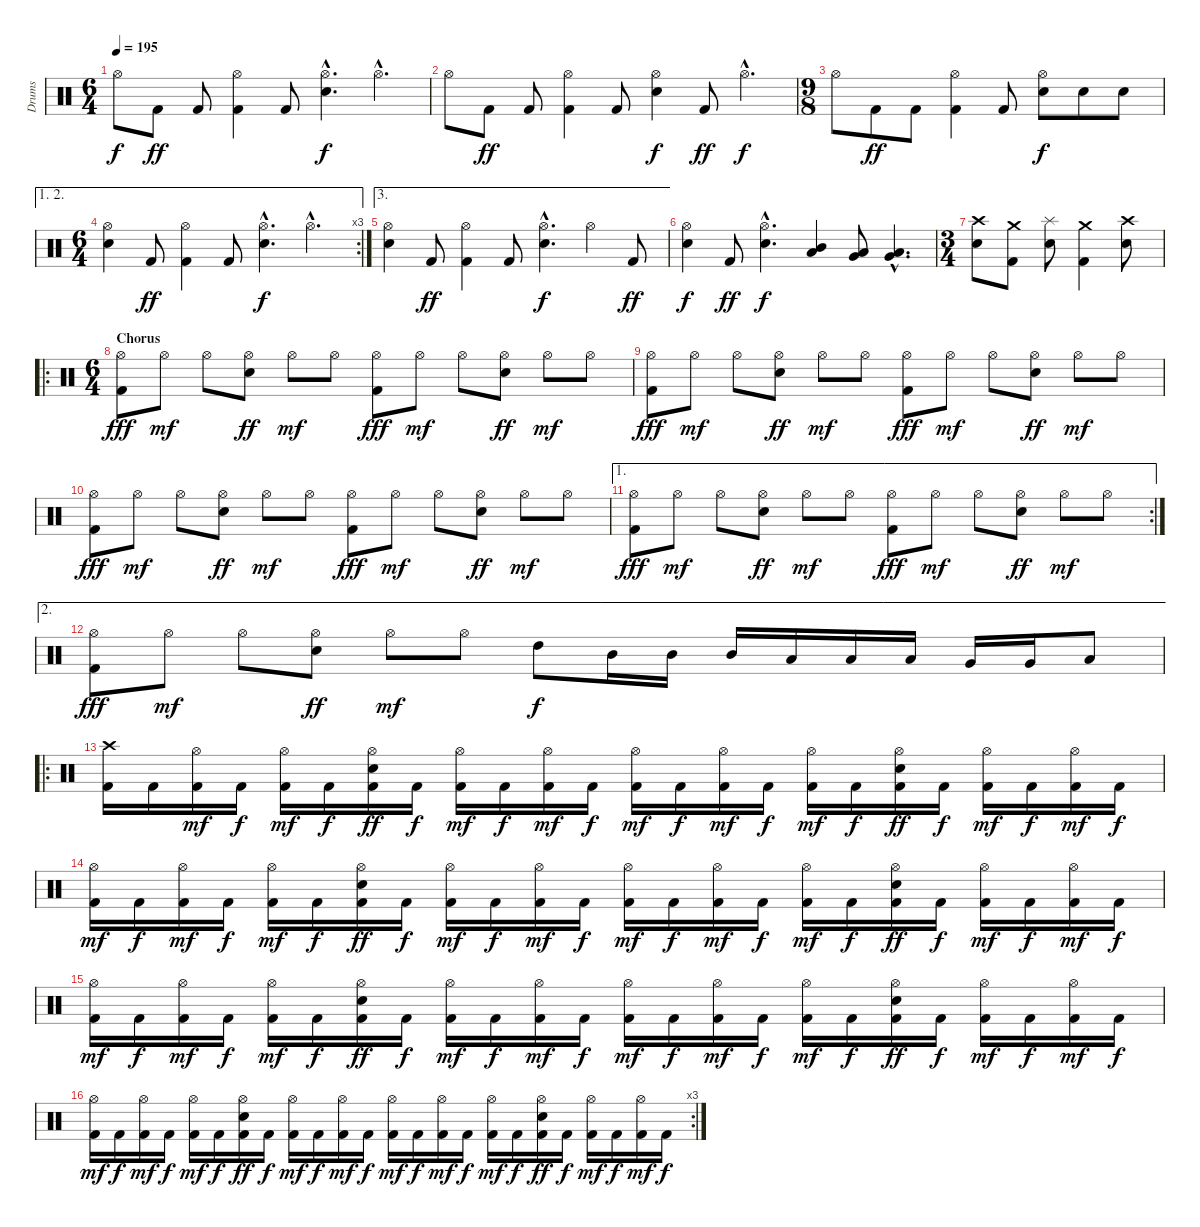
\track ("Drums" "Drums") {instrument percussion}
\staff {score}
\articulation defaults
\ts (6 4)
\tempo 195
\clef neutral
\ks c "Hi-Hat (open)".8{dy f} "Kick (hit) 2".8{dy ff} "Kick (hit) 2".8
("Hi-Hat (open)" "Kick (hit) 2").4 "Kick (hit) 2".8 ("Hi-Hat (open)"{hac} "Electric Snare (hit)"{hac}).4{d dy f} "Hi-Hat (open)"{hac}.4{d} |
"Hi-Hat (open)".8 "Kick (hit) 2".8{dy ff} "Kick (hit) 2".8 ("Hi-Hat (open)" "Kick (hit) 2").4 "Kick (hit) 2".8 ("Hi-Hat (open)" "Electric Snare (hit)").4{dy f} "Kick (hit) 2".8{dy ff} "Hi-Hat (open)"{hac}.4{d dy f} |
\ts (9 8)
"Hi-Hat (open)".8 "Kick (hit) 2".8{dy ff} "Kick (hit) 2".8 ("Hi-Hat (open)" "Kick (hit) 2").4 "Kick (hit) 2".8 ("Hi-Hat (open)" "Electric Snare (hit)").8{dy f} "Electric Snare (hit)".8 "Electric Snare (hit)".8 |
\ae (1 2)
\rc 3
\ts (6 4)
("Hi-Hat (open)" "Electric Snare (hit)").4 "Kick (hit) 2".8{dy ff} ("Hi-Hat (open)" "Kick (hit) 2").4 "Kick (hit) 2".8 ("Hi-Hat (open)"{hac} "Electric Snare (hit)"{hac}).4{d dy f} "Hi-Hat (open)"{hac}.4{d} |
\ae 3
("Hi-Hat (open)" "Electric Snare (hit)").4 "Kick (hit) 2".8{dy ff} ("Hi-Hat (open)" "Kick (hit) 2").4 "Kick (hit) 2".8 ("Hi-Hat (open)"{hac} "Electric Snare (hit)"{hac}).4{d dy f} "Hi-Hat (open)".4 "Kick (hit) 2".8{dy ff} |
("Hi-Hat (open)" "Electric Snare (hit)").4{dy f} "Kick (hit) 2".8{dy ff} ("Hi-Hat (open)"{hac} "Electric Snare (hit)"{hac}).4{d dy f} ("Mid Tom (hit)" "Low Tom (hit)").4 ("Low Tom (hit)" "Very Low Tom (hit)").8 ("Very Low Tom (hit)"{hac} "Low Floor Tom (hit)"{hac}).4{d} |
\ts (3 4)
("Crash high (hit)" "Electric Snare (hit)").8 ("Crash medium (hit)" "Kick (hit) 2").8 ("Splash (hit)" "Electric Snare (hit)").8 ("Crash medium (hit)" "Kick (hit) 2").4 ("Crash high (hit)" "Electric Snare (hit)").8 |
\ro
\ts (6 4)
\section ("" "Chorus")
("Hi-Hat (open)" "Kick (hit) 2").8{dy fff} "Hi-Hat (open)".8{dy mf} "Hi-Hat (open)".8 ("Hi-Hat (open)" "Electric Snare (hit)").8{dy ff} "Hi-Hat (open)".8{dy mf} "Hi-Hat (open)".8 ("Hi-Hat (open)" "Kick (hit) 2").8{dy fff} "Hi-Hat (open)".8{dy mf} "Hi-Hat (open)".8 ("Hi-Hat (open)" "Electric Snare (hit)").8{dy ff} "Hi-Hat (open)".8{dy mf} "Hi-Hat (open)".8 |
("Hi-Hat (open)" "Kick (hit) 2").8{dy fff} "Hi-Hat (open)".8{dy mf} "Hi-Hat (open)".8 ("Hi-Hat (open)" "Electric Snare (hit)").8{dy ff} "Hi-Hat (open)".8{dy mf} "Hi-Hat (open)".8 ("Hi-Hat (open)" "Kick (hit) 2").8{dy fff} "Hi-Hat (open)".8{dy mf} "Hi-Hat (open)".8 ("Hi-Hat (open)" "Electric Snare (hit)").8{dy ff} "Hi-Hat (open)".8{dy mf} "Hi-Hat (open)".8 |
("Hi-Hat (open)" "Kick (hit) 2").8{dy fff} "Hi-Hat (open)".8{dy mf} "Hi-Hat (open)".8 ("Hi-Hat (open)" "Electric Snare (hit)").8{dy ff} "Hi-Hat (open)".8{dy mf} "Hi-Hat (open)".8 ("Hi-Hat (open)" "Kick (hit) 2").8{dy fff} "Hi-Hat (open)".8{dy mf} "Hi-Hat (open)".8 ("Hi-Hat (open)" "Electric Snare (hit)").8{dy ff} "Hi-Hat (open)".8{dy mf} "Hi-Hat (open)".8 |
\ae 1
\rc 2
("Hi-Hat (open)" "Kick (hit) 2").8{dy fff} "Hi-Hat (open)".8{dy mf} "Hi-Hat (open)".8 ("Hi-Hat (open)" "Electric Snare (hit)").8{dy ff} "Hi-Hat (open)".8{dy mf} "Hi-Hat (open)".8 ("Hi-Hat (open)" "Kick (hit) 2").8{dy fff} "Hi-Hat (open)".8{dy mf} "Hi-Hat (open)".8 ("Hi-Hat (open)" "Electric Snare (hit)").8{dy ff} "Hi-Hat (open)".8{dy mf} "Hi-Hat (open)".8 |
\ae 2
("Hi-Hat (open)" "Kick (hit) 2").8{dy fff} "Hi-Hat (open)".8{dy mf} "Hi-Hat (open)".8 ("Hi-Hat (open)" "Electric Snare (hit)").8{dy ff} "Hi-Hat (open)".8{dy mf} "Hi-Hat (open)".8 "High Tom (hit)".8{dy f} "Mid Tom (hit)".16 "Mid Tom (hit)".16 "Mid Tom (hit)".16 "Low Tom (hit)".16 "Low Tom (hit)".16 "Low Tom (hit)".16 "Very Low Tom (hit)".16 "Very Low Tom (hit)".16 "Low Floor Tom (hit)".8 |
\ro
("Crash high (hit)" "Kick (hit) 2").16 "Kick (hit) 2".16 ("Hi-Hat (open)" "Kick (hit) 2").16{dy mf} "Kick (hit) 2".16{dy f} ("Hi-Hat (open)" "Kick (hit) 2").16{dy mf} "Kick (hit) 2".16{dy f} ("Hi-Hat (open)" "Electric Snare (hit)" "Kick (hit) 2").16{dy ff} "Kick (hit) 2".16{dy f} ("Hi-Hat (open)" "Kick (hit) 2").16{dy mf} "Kick (hit) 2".16{dy f} ("Hi-Hat (open)" "Kick (hit) 2").16{dy mf} "Kick (hit) 2".16{dy f} ("Hi-Hat (open)" "Kick (hit) 2").16{dy mf} "Kick (hit) 2".16{dy f} ("Hi-Hat (open)" "Kick (hit) 2").16{dy mf} "Kick (hit) 2".16{dy f} ("Hi-Hat (open)" "Kick (hit) 2").16{dy mf} "Kick (hit) 2".16{dy f} ("Hi-Hat (open)" "Electric Snare (hit)" "Kick (hit) 2").16{dy ff} "Kick (hit) 2".16{dy f} ("Hi-Hat (open)" "Kick (hit) 2").16{dy mf} "Kick (hit) 2".16{dy f} ("Hi-Hat (open)" "Kick (hit) 2").16{dy mf} "Kick (hit) 2".16{dy f} |
("Hi-Hat (open)" "Kick (hit) 2").16{dy mf} "Kick (hit) 2".16{dy f} ("Hi-Hat (open)" "Kick (hit) 2").16{dy mf} "Kick (hit) 2".16{dy f} ("Hi-Hat (open)" "Kick (hit) 2").16{dy mf} "Kick (hit) 2".16{dy f} ("Hi-Hat (open)" "Electric Snare (hit)" "Kick (hit) 2").16{dy ff} "Kick (hit) 2".16{dy f} ("Hi-Hat (open)" "Kick (hit) 2").16{dy mf} "Kick (hit) 2".16{dy f} ("Hi-Hat (open)" "Kick (hit) 2").16{dy mf} "Kick (hit) 2".16{dy f} ("Hi-Hat (open)" "Kick (hit) 2").16{dy mf} "Kick (hit) 2".16{dy f} ("Hi-Hat (open)" "Kick (hit) 2").16{dy mf} "Kick (hit) 2".16{dy f} ("Hi-Hat (open)" "Kick (hit) 2").16{dy mf} "Kick (hit) 2".16{dy f} ("Hi-Hat (open)" "Electric Snare (hit)" "Kick (hit) 2").16{dy ff} "Kick (hit) 2".16{dy f} ("Hi-Hat (open)" "Kick (hit) 2").16{dy mf} "Kick (hit) 2".16{dy f} ("Hi-Hat (open)" "Kick (hit) 2").16{dy mf} "Kick (hit) 2".16{dy f} |
("Hi-Hat (open)" "Kick (hit) 2").16{dy mf} "Kick (hit) 2".16{dy f} ("Hi-Hat (open)" "Kick (hit) 2").16{dy mf} "Kick (hit) 2".16{dy f} ("Hi-Hat (open)" "Kick (hit) 2").16{dy mf} "Kick (hit) 2".16{dy f} ("Hi-Hat (open)" "Electric Snare (hit)" "Kick (hit) 2").16{dy ff} "Kick (hit) 2".16{dy f} ("Hi-Hat (open)" "Kick (hit) 2").16{dy mf} "Kick (hit) 2".16{dy f} ("Hi-Hat (open)" "Kick (hit) 2").16{dy mf} "Kick (hit) 2".16{dy f} ("Hi-Hat (open)" "Kick (hit) 2").16{dy mf} "Kick (hit) 2".16{dy f} ("Hi-Hat (open)" "Kick (hit) 2").16{dy mf} "Kick (hit) 2".16{dy f} ("Hi-Hat (open)" "Kick (hit) 2").16{dy mf} "Kick (hit) 2".16{dy f} ("Hi-Hat (open)" "Electric Snare (hit)" "Kick (hit) 2").16{dy ff} "Kick (hit) 2".16{dy f} ("Hi-Hat (open)" "Kick (hit) 2").16{dy mf} "Kick (hit) 2".16{dy f} ("Hi-Hat (open)" "Kick (hit) 2").16{dy mf} "Kick (hit) 2".16{dy f} |
\rc 3
("Hi-Hat (open)" "Kick (hit) 2").16{dy mf} "Kick (hit) 2".16{dy f} ("Hi-Hat (open)" "Kick (hit) 2").16{dy mf} "Kick (hit) 2".16{dy f} ("Hi-Hat (open)" "Kick (hit) 2").16{dy mf} "Kick (hit) 2".16{dy f} ("Hi-Hat (open)" "Electric Snare (hit)" "Kick (hit) 2").16{dy ff} "Kick (hit) 2".16{dy f} ("Hi-Hat (open)" "Kick (hit) 2").16{dy mf} "Kick (hit) 2".16{dy f} ("Hi-Hat (open)" "Kick (hit) 2").16{dy mf} "Kick (hit) 2".16{dy f} ("Hi-Hat (open)" "Kick (hit) 2").16{dy mf} "Kick (hit) 2".16{dy f} ("Hi-Hat (open)" "Kick (hit) 2").16{dy mf} "Kick (hit) 2".16{dy f} ("Hi-Hat (open)" "Kick (hit) 2").16{dy mf} "Kick (hit) 2".16{dy f} ("Hi-Hat (open)" "Electric Snare (hit)" "Kick (hit) 2").16{dy ff} "Kick (hit) 2".16{dy f} ("Hi-Hat (open)" "Kick (hit) 2").16{dy mf} "Kick (hit) 2".16{dy f} ("Hi-Hat (open)" "Kick (hit) 2").16{dy mf} "Kick (hit) 2".16{dy f}
